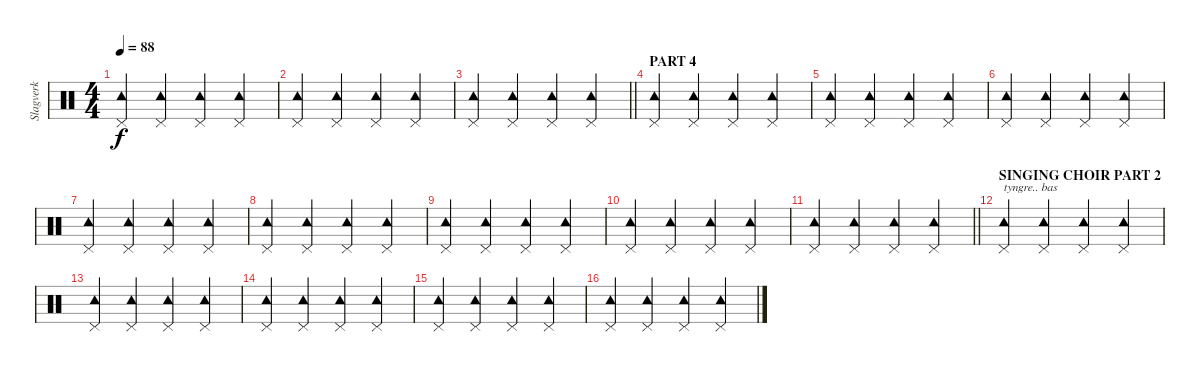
\track ("Slagverk" "Slagverk") {instrument percussion}
\staff {score}
\articulation defaults
\ts (4 4)
\tempo 88
\clef neutral
\ks c
("Pedal Hi-Hat (hit)" "Tambourine (hit)").4{dy f} ("Pedal Hi-Hat (hit)" "Tambourine (hit)").4 ("Pedal Hi-Hat (hit)" "Tambourine (hit)").4 ("Pedal Hi-Hat (hit)" "Tambourine (hit)").4 |
("Pedal Hi-Hat (hit)" "Tambourine (hit)").4 ("Pedal Hi-Hat (hit)" "Tambourine (hit)").4 ("Pedal Hi-Hat (hit)" "Tambourine (hit)").4 ("Pedal Hi-Hat (hit)" "Tambourine (hit)").4 |
\barLineRight lightlight
("Pedal Hi-Hat (hit)" "Tambourine (hit)").4 ("Pedal Hi-Hat (hit)" "Tambourine (hit)").4 ("Pedal Hi-Hat (hit)" "Tambourine (hit)").4 ("Pedal Hi-Hat (hit)" "Tambourine (hit)").4 |
\section ("" "PART 4")
("Pedal Hi-Hat (hit)" "Tambourine (hit)").4 ("Pedal Hi-Hat (hit)" "Tambourine (hit)").4 ("Pedal Hi-Hat (hit)" "Tambourine (hit)").4 ("Pedal Hi-Hat (hit)" "Tambourine (hit)").4 |
("Pedal Hi-Hat (hit)" "Tambourine (hit)").4 ("Pedal Hi-Hat (hit)" "Tambourine (hit)").4 ("Pedal Hi-Hat (hit)" "Tambourine (hit)").4 ("Pedal Hi-Hat (hit)" "Tambourine (hit)").4 |
("Pedal Hi-Hat (hit)" "Tambourine (hit)").4 ("Pedal Hi-Hat (hit)" "Tambourine (hit)").4 ("Pedal Hi-Hat (hit)" "Tambourine (hit)").4 ("Pedal Hi-Hat (hit)" "Tambourine (hit)").4 |
("Pedal Hi-Hat (hit)" "Tambourine (hit)").4 ("Pedal Hi-Hat (hit)" "Tambourine (hit)").4 ("Pedal Hi-Hat (hit)" "Tambourine (hit)").4 ("Pedal Hi-Hat (hit)" "Tambourine (hit)").4 |
("Pedal Hi-Hat (hit)" "Tambourine (hit)").4 ("Pedal Hi-Hat (hit)" "Tambourine (hit)").4 ("Pedal Hi-Hat (hit)" "Tambourine (hit)").4 ("Pedal Hi-Hat (hit)" "Tambourine (hit)").4 |
("Pedal Hi-Hat (hit)" "Tambourine (hit)").4 ("Pedal Hi-Hat (hit)" "Tambourine (hit)").4 ("Pedal Hi-Hat (hit)" "Tambourine (hit)").4 ("Pedal Hi-Hat (hit)" "Tambourine (hit)").4 |
("Pedal Hi-Hat (hit)" "Tambourine (hit)").4 ("Pedal Hi-Hat (hit)" "Tambourine (hit)").4 ("Pedal Hi-Hat (hit)" "Tambourine (hit)").4 ("Pedal Hi-Hat (hit)" "Tambourine (hit)").4 |
\barLineRight lightlight
("Pedal Hi-Hat (hit)" "Tambourine (hit)").4 ("Pedal Hi-Hat (hit)" "Tambourine (hit)").4 ("Pedal Hi-Hat (hit)" "Tambourine (hit)").4 ("Pedal Hi-Hat (hit)" "Tambourine (hit)").4 |
\section ("" "SINGING CHOIR PART 2")
("Pedal Hi-Hat (hit)" "Tambourine (hit)").4{txt "tyngre.. bas"} ("Pedal Hi-Hat (hit)" "Tambourine (hit)").4 ("Pedal Hi-Hat (hit)" "Tambourine (hit)").4 ("Pedal Hi-Hat (hit)" "Tambourine (hit)").4 |
("Pedal Hi-Hat (hit)" "Tambourine (hit)").4 ("Pedal Hi-Hat (hit)" "Tambourine (hit)").4 ("Pedal Hi-Hat (hit)" "Tambourine (hit)").4 ("Pedal Hi-Hat (hit)" "Tambourine (hit)").4 |
("Pedal Hi-Hat (hit)" "Tambourine (hit)").4 ("Pedal Hi-Hat (hit)" "Tambourine (hit)").4 ("Pedal Hi-Hat (hit)" "Tambourine (hit)").4 ("Pedal Hi-Hat (hit)" "Tambourine (hit)").4 |
("Pedal Hi-Hat (hit)" "Tambourine (hit)").4 ("Pedal Hi-Hat (hit)" "Tambourine (hit)").4 ("Pedal Hi-Hat (hit)" "Tambourine (hit)").4 ("Pedal Hi-Hat (hit)" "Tambourine (hit)").4 |
("Pedal Hi-Hat (hit)" "Tambourine (hit)").4 ("Pedal Hi-Hat (hit)" "Tambourine (hit)").4 ("Pedal Hi-Hat (hit)" "Tambourine (hit)").4 ("Pedal Hi-Hat (hit)" "Tambourine (hit)").4
